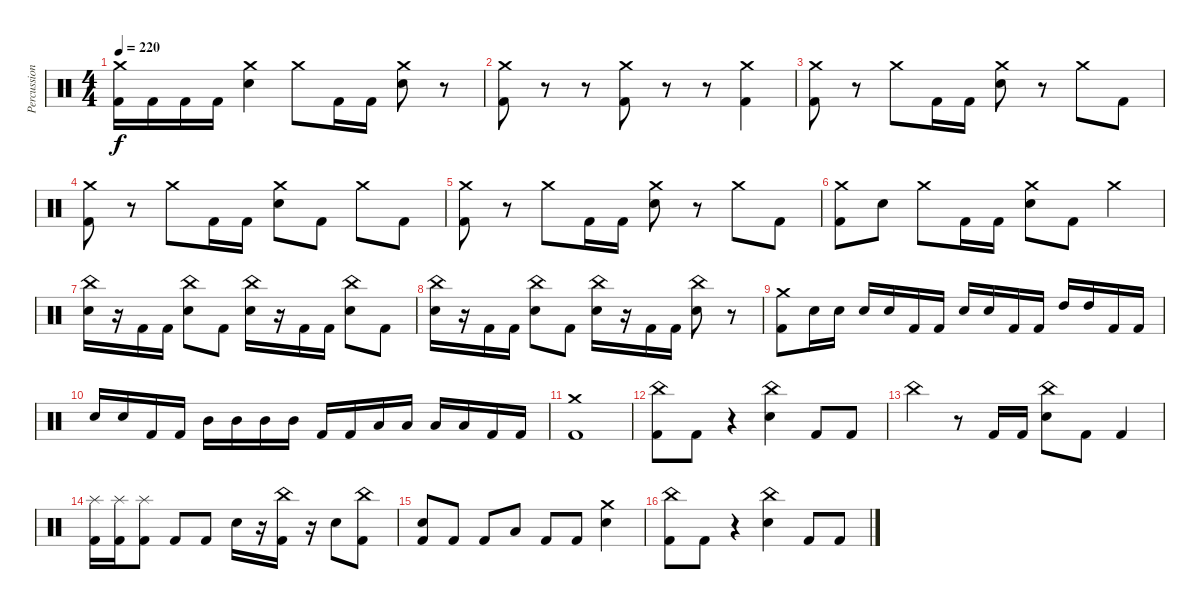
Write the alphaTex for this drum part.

\track ("Percussion" "Percussion") {solo instrument percussion}
\staff {score}
\articulation defaults
\ts (4 4)
\tempo 220
\clef neutral
\ks c
("Crash medium (hit)" "Kick (hit) 2").16{dy f} "Kick (hit) 2".16 "Kick (hit) 2".16 "Kick (hit) 2".16 ("Crash medium (hit)" "Electric Snare (hit)").4 "Crash medium (hit)".8 "Kick (hit) 2".16 "Kick (hit) 2".16 ("Crash medium (hit)" "Electric Snare (hit)").8 r.8 |
("Crash medium (hit)" "Kick (hit) 2").8 r.8 r.8 ("Crash medium (hit)" "Kick (hit) 2").8 r.8 r.8 ("Crash medium (hit)" "Kick (hit) 2").4 |
("Crash medium (hit)" "Kick (hit) 2").8 r.8 "Crash medium (hit)".8 "Kick (hit) 2".16 "Kick (hit) 2".16 ("Crash medium (hit)" "Electric Snare (hit)").8 r.8 "Crash medium (hit)".8 "Kick (hit) 2".8 |
("Crash medium (hit)" "Kick (hit) 2").8 r.8 "Crash medium (hit)".8 "Kick (hit) 2".16 "Kick (hit) 2".16 ("Crash medium (hit)" "Electric Snare (hit)").8 "Kick (hit) 2".8 "Crash medium (hit)".8 "Kick (hit) 2".8 |
("Crash medium (hit)" "Kick (hit) 2").8 r.8 "Crash medium (hit)".8 "Kick (hit) 2".16 "Kick (hit) 2".16 ("Crash medium (hit)" "Electric Snare (hit)").8 r.8 "Crash medium (hit)".8 "Kick (hit) 2".8 |
("Crash medium (hit)" "Kick (hit) 2").8 "Electric Snare (hit)".8 "Crash medium (hit)".8 "Kick (hit) 2".16 "Kick (hit) 2".16 ("Crash medium (hit)" "Electric Snare (hit)").8 "Kick (hit) 2".8 "Crash medium (hit)".4 |
("China (hit)" "Electric Snare (hit)").16 r.16 "Kick (hit) 2".16 "Kick (hit) 2".16 ("China (hit)" "Electric Snare (hit)").8 "Kick (hit) 2".8 ("China (hit)" "Electric Snare (hit)").16 r.16 "Kick (hit) 2".16 "Kick (hit) 2".16 ("China (hit)" "Electric Snare (hit)").8 "Kick (hit) 2".8 |
("China (hit)" "Electric Snare (hit)").16 r.16 "Kick (hit) 2".16 "Kick (hit) 2".16 ("China (hit)" "Electric Snare (hit)").8 "Kick (hit) 2".8 ("China (hit)" "Electric Snare (hit)").16 r.16 "Kick (hit) 2".16 "Kick (hit) 2".16 ("China (hit)" "Electric Snare (hit)").8 r.8 |
("Crash medium (hit)" "Kick (hit) 2").8 "Electric Snare (hit)".16 "Electric Snare (hit)".16 "Electric Snare (hit)".16 "Electric Snare (hit)".16 "Kick (hit) 2".16 "Kick (hit) 2".16 "Electric Snare (hit)".16 "Electric Snare (hit)".16 "Kick (hit) 2".16 "Kick (hit) 2".16 "High Tom (hit)".16 "High Tom (hit)".16 "Kick (hit) 2".16 "Kick (hit) 2".16 |
"Electric Snare (hit)".16 "Electric Snare (hit)".16 "Kick (hit) 2".16 "Kick (hit) 2".16 "Mid Tom (hit)".16 "Mid Tom (hit)".16 "Mid Tom (hit)".16 "Mid Tom (hit)".16 "Kick (hit) 2".16 "Kick (hit) 2".16 "Low Floor Tom (hit)".16 "Low Floor Tom (hit)".16 "Low Floor Tom (hit)".16 "Low Floor Tom (hit)".16 "Kick (hit) 2".16 "Kick (hit) 2".16 |
("Crash medium (hit)" "Kick (hit) 2").1 |
("China (hit)" "Kick (hit) 2").8 "Kick (hit) 2".8 r.4 ("China (hit)" "Electric Snare (hit)").4 "Kick (hit) 2".8 "Kick (hit) 2".8 |
"China (hit)".4 r.8 "Kick (hit) 2".16 "Kick (hit) 2".16 ("China (hit)" "Electric Snare (hit)").8 "Kick (hit) 2".8 "Kick (hit) 2".4 |
("Splash (hit)" "Kick (hit) 2").16 ("Splash (hit)" "Kick (hit) 2").16 ("Splash (hit)" "Kick (hit) 2").8 "Kick (hit) 2".8 "Kick (hit) 2".8 "Electric Snare (hit)".16 r.16 ("China (hit)" "Kick (hit) 2").16 r.16 "Electric Snare (hit)".8 ("China (hit)" "Kick (hit) 2").8 |
("Electric Snare (hit)" "Kick (hit) 2").8 "Kick (hit) 2".8 "Kick (hit) 2".8 "Low Floor Tom (hit)".8 "Kick (hit) 2".8 "Kick (hit) 2".8 ("Crash medium (hit)" "Electric Snare (hit)").4 |
("China (hit)" "Kick (hit) 2").8 "Kick (hit) 2".8 r.4 ("China (hit)" "Electric Snare (hit)").4 "Kick (hit) 2".8 "Kick (hit) 2".8
